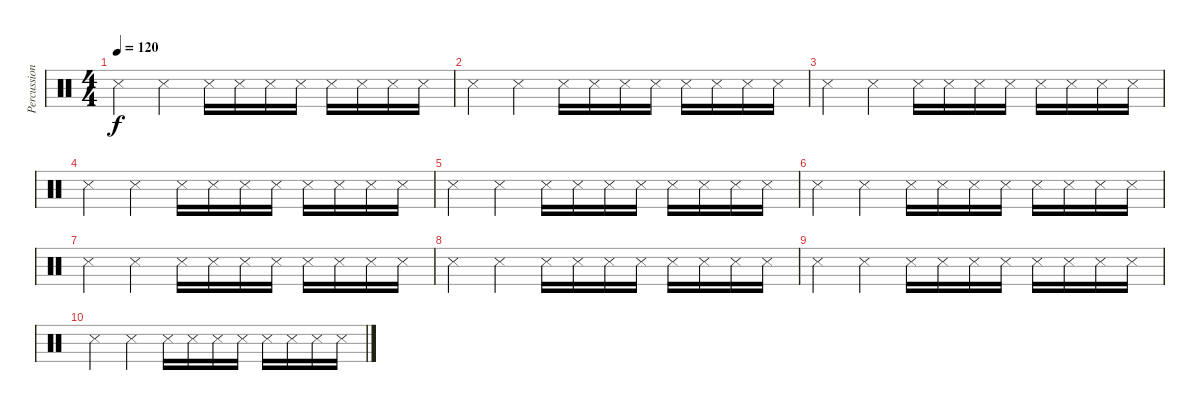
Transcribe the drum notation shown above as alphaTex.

\track ("Percussioni" "Percussion") {instrument percussion}
\staff {score}
\articulation defaults
\ts (4 4)
\tempo 120
\clef neutral
\ks c "Metronome (hit)".4{dy f} "Metronome (hit)".4 "Metronome (hit)".16 "Metronome (hit)".16 "Metronome (hit)".16 "Metronome (hit)".16 "Metronome (hit)".16 "Metronome (hit)".16 "Metronome (hit)".16 "Metronome (hit)".16
|
"Metronome (hit)".4 "Metronome (hit)".4 "Metronome (hit)".16 "Metronome (hit)".16 "Metronome (hit)".16 "Metronome (hit)".16 "Metronome (hit)".16 "Metronome (hit)".16 "Metronome (hit)".16 "Metronome (hit)".16 |
"Metronome (hit)".4 "Metronome (hit)".4 "Metronome (hit)".16 "Metronome (hit)".16 "Metronome (hit)".16 "Metronome (hit)".16 "Metronome (hit)".16 "Metronome (hit)".16 "Metronome (hit)".16 "Metronome (hit)".16 |
"Metronome (hit)".4 "Metronome (hit)".4 "Metronome (hit)".16 "Metronome (hit)".16 "Metronome (hit)".16 "Metronome (hit)".16 "Metronome (hit)".16 "Metronome (hit)".16 "Metronome (hit)".16 "Metronome (hit)".16 |
"Metronome (hit)".4 "Metronome (hit)".4 "Metronome (hit)".16 "Metronome (hit)".16 "Metronome (hit)".16 "Metronome (hit)".16 "Metronome (hit)".16 "Metronome (hit)".16 "Metronome (hit)".16 "Metronome (hit)".16 |
"Metronome (hit)".4 "Metronome (hit)".4 "Metronome (hit)".16 "Metronome (hit)".16 "Metronome (hit)".16 "Metronome (hit)".16 "Metronome (hit)".16 "Metronome (hit)".16 "Metronome (hit)".16 "Metronome (hit)".16 |
"Metronome (hit)".4 "Metronome (hit)".4 "Metronome (hit)".16 "Metronome (hit)".16 "Metronome (hit)".16 "Metronome (hit)".16 "Metronome (hit)".16 "Metronome (hit)".16 "Metronome (hit)".16 "Metronome (hit)".16 |
"Metronome (hit)".4 "Metronome (hit)".4 "Metronome (hit)".16 "Metronome (hit)".16 "Metronome (hit)".16 "Metronome (hit)".16 "Metronome (hit)".16 "Metronome (hit)".16 "Metronome (hit)".16 "Metronome (hit)".16 |
"Metronome (hit)".4 "Metronome (hit)".4 "Metronome (hit)".16 "Metronome (hit)".16 "Metronome (hit)".16 "Metronome (hit)".16 "Metronome (hit)".16 "Metronome (hit)".16 "Metronome (hit)".16 "Metronome (hit)".16 |
"Metronome (hit)".4 "Metronome (hit)".4 "Metronome (hit)".16 "Metronome (hit)".16 "Metronome (hit)".16 "Metronome (hit)".16 "Metronome (hit)".16 "Metronome (hit)".16 "Metronome (hit)".16 "Metronome (hit)".16
